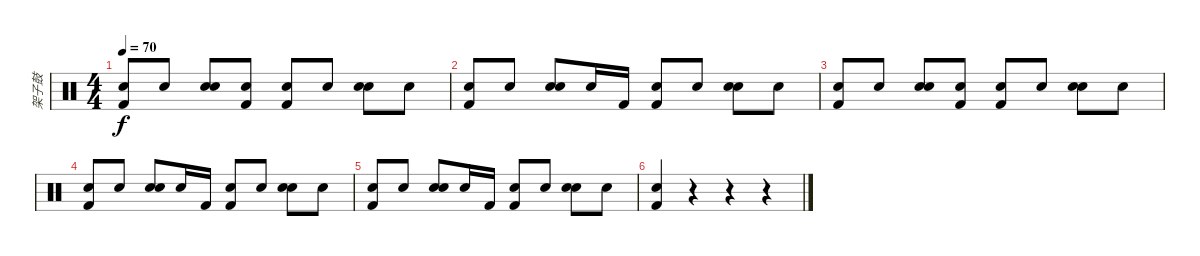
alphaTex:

\track ("架子鼓" "架子鼓") {instrument percussion}
\staff {score}
\articulation defaults
\ts (4 4)
\tempo 70
\clef neutral
\ks c
("Snare (hit)" "Kick (hit) 2").8{dy f} "Snare (hit)".8 ("Snare (hit)" "Snare (hit) 2").8 ("Snare (hit)" "Kick (hit) 2").8 ("Snare (hit)" "Kick (hit) 2").8 "Snare (hit)".8 ("Snare (hit)" "Snare (hit) 2").8 "Snare (hit)".8 |
("Snare (hit)" "Kick (hit) 2").8 "Snare (hit)".8 ("Snare (hit)" "Snare (hit) 2").8 "Snare (hit)".16 "Kick (hit) 2".16 ("Snare (hit)" "Kick (hit) 2").8 "Snare (hit)".8 ("Snare (hit)" "Snare (hit) 2").8 "Snare (hit)".8 |
("Snare (hit)" "Kick (hit) 2").8 "Snare (hit)".8 ("Snare (hit)" "Snare (hit) 2").8 ("Snare (hit)" "Kick (hit) 2").8 ("Snare (hit)" "Kick (hit) 2").8 "Snare (hit)".8 ("Snare (hit)" "Snare (hit) 2").8 "Snare (hit)".8 |
("Snare (hit)" "Kick (hit) 2").8 "Snare (hit)".8 ("Snare (hit)" "Snare (hit) 2").8 "Snare (hit)".16 "Kick (hit) 2".16 ("Snare (hit)" "Kick (hit) 2").8 "Snare (hit)".8 ("Snare (hit)" "Snare (hit) 2").8 "Snare (hit)".8 |
("Snare (hit)" "Kick (hit) 2").8 "Snare (hit)".8 ("Snare (hit)" "Snare (hit) 2").8 "Snare (hit)".16 "Kick (hit) 2".16 ("Snare (hit)" "Kick (hit) 2").8 "Snare (hit)".8 ("Snare (hit)" "Snare (hit) 2").8 "Snare (hit)".8 |
("Snare (hit)" "Kick (hit) 2").4 r.4 r.4 r.4
